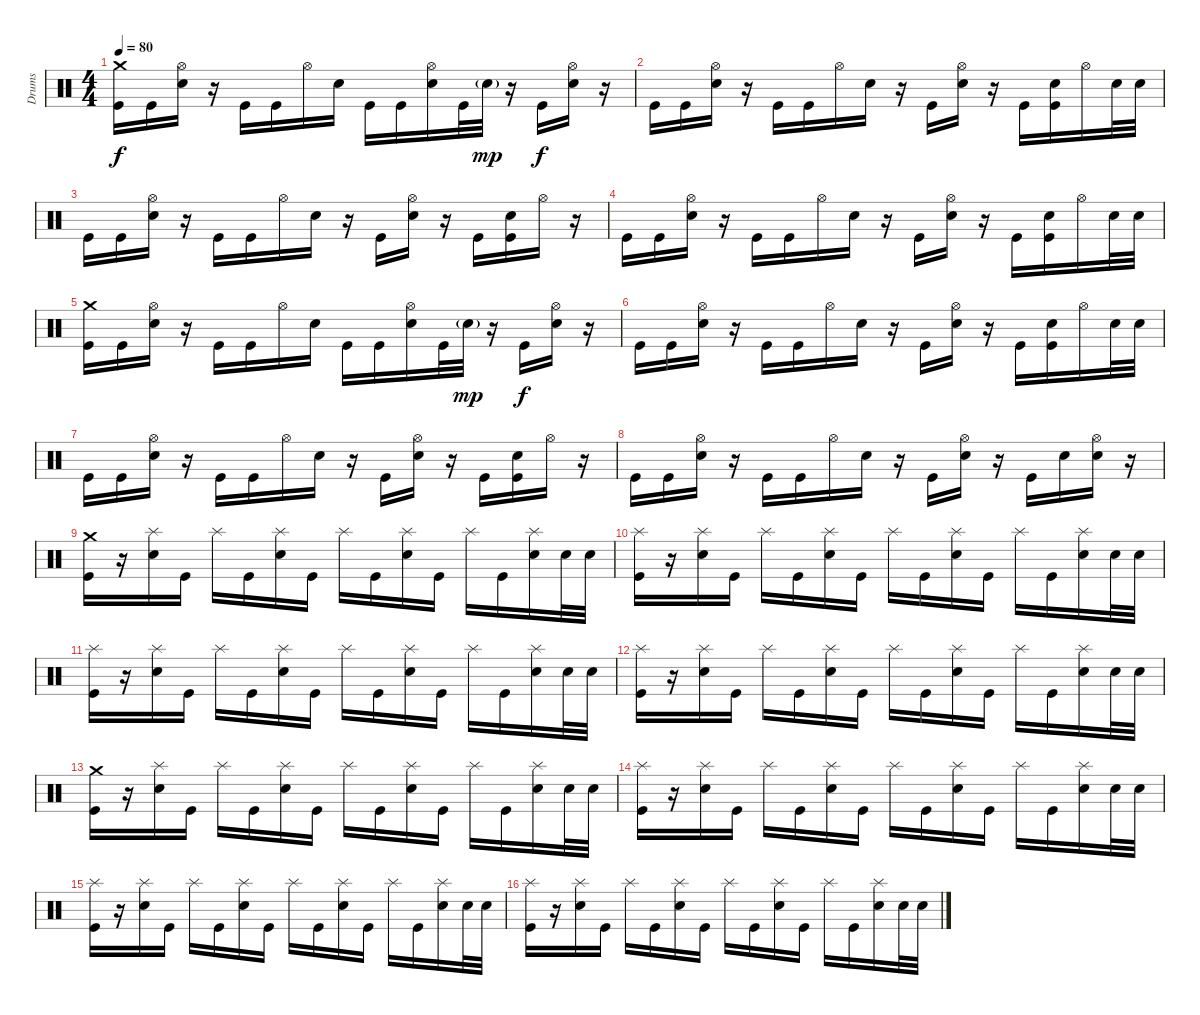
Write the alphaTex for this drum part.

\track ("Drums" "Drums") {instrument percussion}
\staff {score}
\articulation defaults
\ts (4 4)
\tempo 80
\clef neutral
\ks c
("Crash medium (hit)" "Kick (hit)").16{dy f} "Kick (hit)".16 ("Hi-Hat (open)" "Electric Snare (hit)").16 r.16 "Kick (hit)".16 "Kick (hit)".16 "Hi-Hat (open)".16 "Electric Snare (hit)".16 "Kick (hit)".16 "Kick (hit)".16 ("Hi-Hat (open)" "Electric Snare (hit)").16 "Kick (hit)".32 "Electric Snare (hit)"{g}.32{dy mp} r.16 "Kick (hit)".16{dy f} ("Hi-Hat (open)" "Electric Snare (hit)").16 r.16 |
"Kick (hit)".16 "Kick (hit)".16 ("Hi-Hat (open)" "Electric Snare (hit)").16 r.16 "Kick (hit)".16 "Kick (hit)".16 "Hi-Hat (open)".16 "Electric Snare (hit)".16 r.16 "Kick (hit)".16 ("Hi-Hat (open)" "Electric Snare (hit)").16 r.16 "Kick (hit)".16 ("Electric Snare (hit)" "Kick (hit)").16 "Hi-Hat (open)".16 "Electric Snare (hit)".32 "Electric Snare (hit)".32 |
"Kick (hit)".16 "Kick (hit)".16 ("Hi-Hat (open)" "Electric Snare (hit)").16 r.16 "Kick (hit)".16 "Kick (hit)".16 "Hi-Hat (open)".16 "Electric Snare (hit)".16 r.16 "Kick (hit)".16 ("Hi-Hat (open)" "Electric Snare (hit)").16 r.16 "Kick (hit)".16 ("Electric Snare (hit)" "Kick (hit)").16 "Hi-Hat (open)".16 r.16 |
"Kick (hit)".16 "Kick (hit)".16 ("Hi-Hat (open)" "Electric Snare (hit)").16 r.16 "Kick (hit)".16 "Kick (hit)".16 "Hi-Hat (open)".16 "Electric Snare (hit)".16 r.16 "Kick (hit)".16 ("Hi-Hat (open)" "Electric Snare (hit)").16 r.16 "Kick (hit)".16 ("Electric Snare (hit)" "Kick (hit)").16 "Hi-Hat (open)".16 "Electric Snare (hit)".32 "Electric Snare (hit)".32 |
("Crash medium (hit)" "Kick (hit)").16 "Kick (hit)".16 ("Hi-Hat (open)" "Electric Snare (hit)").16 r.16 "Kick (hit)".16 "Kick (hit)".16 "Hi-Hat (open)".16 "Electric Snare (hit)".16 "Kick (hit)".16 "Kick (hit)".16 ("Hi-Hat (open)" "Electric Snare (hit)").16 "Kick (hit)".32 "Electric Snare (hit)"{g}.32{dy mp} r.16 "Kick (hit)".16{dy f} ("Hi-Hat (open)" "Electric Snare (hit)").16 r.16 |
"Kick (hit)".16 "Kick (hit)".16 ("Hi-Hat (open)" "Electric Snare (hit)").16 r.16 "Kick (hit)".16 "Kick (hit)".16 "Hi-Hat (open)".16 "Electric Snare (hit)".16 r.16 "Kick (hit)".16 ("Hi-Hat (open)" "Electric Snare (hit)").16 r.16 "Kick (hit)".16 ("Electric Snare (hit)" "Kick (hit)").16 "Hi-Hat (open)".16 "Electric Snare (hit)".32 "Electric Snare (hit)".32 |
"Kick (hit)".16 "Kick (hit)".16 ("Hi-Hat (open)" "Electric Snare (hit)").16 r.16 "Kick (hit)".16 "Kick (hit)".16 "Hi-Hat (open)".16 "Electric Snare (hit)".16 r.16 "Kick (hit)".16 ("Hi-Hat (open)" "Electric Snare (hit)").16 r.16 "Kick (hit)".16 ("Electric Snare (hit)" "Kick (hit)").16 "Hi-Hat (open)".16 r.16 |
"Kick (hit)".16 "Kick (hit)".16 ("Hi-Hat (open)" "Electric Snare (hit)").16 r.16 "Kick (hit)".16 "Kick (hit)".16 "Hi-Hat (open)".16 "Electric Snare (hit)".16 r.16 "Kick (hit)".16 ("Hi-Hat (open)" "Electric Snare (hit)").16 r.16 "Kick (hit)".16 "Electric Snare (hit)".16 ("Hi-Hat (open)" "Electric Snare (hit)").16 r.16 |
("Crash medium (hit)" "Kick (hit)").16 r.16 ("Splash (hit)" "Electric Snare (hit)").16 "Kick (hit)".16 "Splash (hit)".16 "Kick (hit)".16 ("Splash (hit)" "Electric Snare (hit)").16 "Kick (hit)".16 "Splash (hit)".16 "Kick (hit)".16 ("Splash (hit)" "Electric Snare (hit)").16 "Kick (hit)".16 "Splash (hit)".16 "Kick (hit)".16 ("Splash (hit)" "Electric Snare (hit)").16 "Electric Snare (hit)".32 "Electric Snare (hit)".32 |
("Splash (hit)" "Kick (hit)").16 r.16 ("Splash (hit)" "Electric Snare (hit)").16 "Kick (hit)".16 "Splash (hit)".16 "Kick (hit)".16 ("Splash (hit)" "Electric Snare (hit)").16 "Kick (hit)".16 "Splash (hit)".16 "Kick (hit)".16 ("Splash (hit)" "Electric Snare (hit)").16 "Kick (hit)".16 "Splash (hit)".16 "Kick (hit)".16 ("Splash (hit)" "Electric Snare (hit)").16 "Electric Snare (hit)".32 "Electric Snare (hit)".32 |
("Splash (hit)" "Kick (hit)").16 r.16 ("Splash (hit)" "Electric Snare (hit)").16 "Kick (hit)".16 "Splash (hit)".16 "Kick (hit)".16 ("Splash (hit)" "Electric Snare (hit)").16 "Kick (hit)".16 "Splash (hit)".16 "Kick (hit)".16 ("Splash (hit)" "Electric Snare (hit)").16 "Kick (hit)".16 "Splash (hit)".16 "Kick (hit)".16 ("Splash (hit)" "Electric Snare (hit)").16 "Electric Snare (hit)".32 "Electric Snare (hit)".32 |
("Splash (hit)" "Kick (hit)").16 r.16 ("Splash (hit)" "Electric Snare (hit)").16 "Kick (hit)".16 "Splash (hit)".16 "Kick (hit)".16 ("Splash (hit)" "Electric Snare (hit)").16 "Kick (hit)".16 "Splash (hit)".16 "Kick (hit)".16 ("Splash (hit)" "Electric Snare (hit)").16 "Kick (hit)".16 "Splash (hit)".16 "Kick (hit)".16 ("Splash (hit)" "Electric Snare (hit)").16 "Electric Snare (hit)".32 "Electric Snare (hit)".32 |
("Crash medium (hit)" "Kick (hit)").16 r.16 ("Splash (hit)" "Electric Snare (hit)").16 "Kick (hit)".16 "Splash (hit)".16 "Kick (hit)".16 ("Splash (hit)" "Electric Snare (hit)").16 "Kick (hit)".16 "Splash (hit)".16 "Kick (hit)".16 ("Splash (hit)" "Electric Snare (hit)").16 "Kick (hit)".16 "Splash (hit)".16 "Kick (hit)".16 ("Splash (hit)" "Electric Snare (hit)").16 "Electric Snare (hit)".32 "Electric Snare (hit)".32 |
("Splash (hit)" "Kick (hit)").16 r.16 ("Splash (hit)" "Electric Snare (hit)").16 "Kick (hit)".16 "Splash (hit)".16 "Kick (hit)".16 ("Splash (hit)" "Electric Snare (hit)").16 "Kick (hit)".16 "Splash (hit)".16 "Kick (hit)".16 ("Splash (hit)" "Electric Snare (hit)").16 "Kick (hit)".16 "Splash (hit)".16 "Kick (hit)".16 ("Splash (hit)" "Electric Snare (hit)").16 "Electric Snare (hit)".32 "Electric Snare (hit)".32 |
("Splash (hit)" "Kick (hit)").16 r.16 ("Splash (hit)" "Electric Snare (hit)").16 "Kick (hit)".16 "Splash (hit)".16 "Kick (hit)".16 ("Splash (hit)" "Electric Snare (hit)").16 "Kick (hit)".16 "Splash (hit)".16 "Kick (hit)".16 ("Splash (hit)" "Electric Snare (hit)").16 "Kick (hit)".16 "Splash (hit)".16 "Kick (hit)".16 ("Splash (hit)" "Electric Snare (hit)").16 "Electric Snare (hit)".32 "Electric Snare (hit)".32 |
("Splash (hit)" "Kick (hit)").16 r.16 ("Splash (hit)" "Electric Snare (hit)").16 "Kick (hit)".16 "Splash (hit)".16 "Kick (hit)".16 ("Splash (hit)" "Electric Snare (hit)").16 "Kick (hit)".16 "Splash (hit)".16 "Kick (hit)".16 ("Splash (hit)" "Electric Snare (hit)").16 "Kick (hit)".16 "Splash (hit)".16 "Kick (hit)".16 ("Splash (hit)" "Electric Snare (hit)").16 "Electric Snare (hit)".32 "Electric Snare (hit)".32
